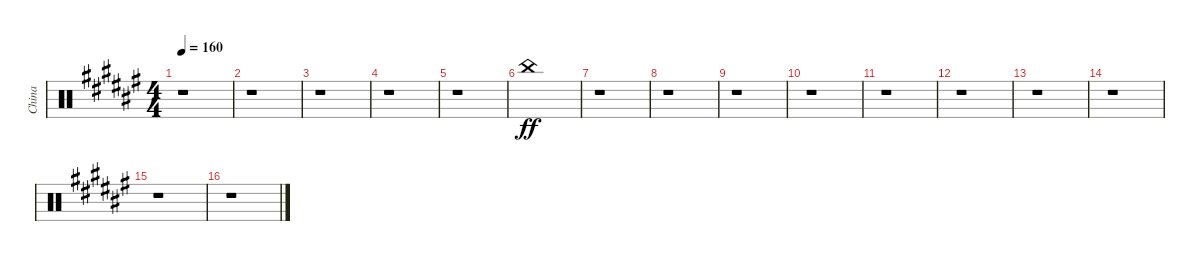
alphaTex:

\track ("China" "China") {instrument percussion}
\staff {score}
\articulation defaults
\ts (4 4)
\tempo 160
\clef neutral
\ks d#minor
r.1{dy ff} |
r.1 |
r.1 |
r.1 |
r.1 |
"China (hit)".1 |
r.1 |
r.1 |
r.1 |
r.1 |
r.1 |
r.1 |
r.1 |
r.1 |
r.1 |
r.1
